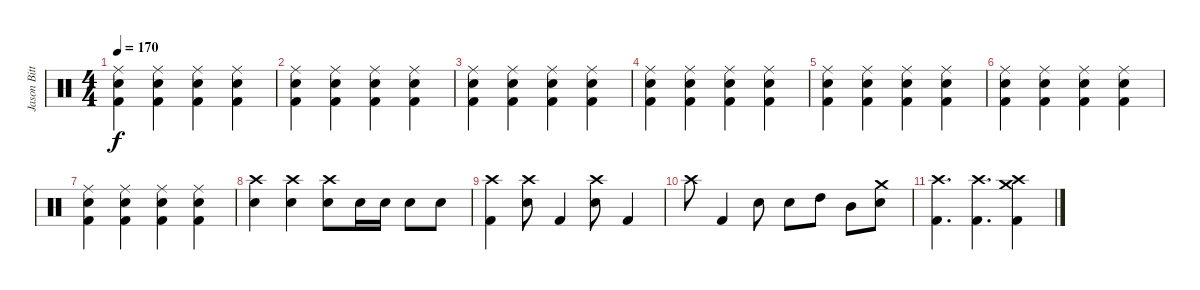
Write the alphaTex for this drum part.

\track ("Jason Bittner" "Jason Bitt") {instrument percussion}
\staff {score}
\articulation defaults
\ts (4 4)
\tempo 170
\clef neutral
\ks c
("Ride (middle)" "Electric Snare (hit)" "Kick (hit) 2").4{dy f} ("Ride (middle)" "Electric Snare (hit)" "Kick (hit) 2").4 ("Ride (middle)" "Electric Snare (hit)" "Kick (hit) 2").4 ("Ride (middle)" "Electric Snare (hit)" "Kick (hit) 2").4 |
("Ride (middle)" "Electric Snare (hit)" "Kick (hit) 2").4 ("Ride (middle)" "Electric Snare (hit)" "Kick (hit) 2").4 ("Ride (middle)" "Electric Snare (hit)" "Kick (hit) 2").4 ("Ride (middle)" "Electric Snare (hit)" "Kick (hit) 2").4 |
("Ride (middle)" "Electric Snare (hit)" "Kick (hit) 2").4 ("Ride (middle)" "Electric Snare (hit)" "Kick (hit) 2").4 ("Ride (middle)" "Electric Snare (hit)" "Kick (hit) 2").4 ("Ride (middle)" "Electric Snare (hit)" "Kick (hit) 2").4 |
("Ride (middle)" "Electric Snare (hit)" "Kick (hit) 2").4 ("Ride (middle)" "Electric Snare (hit)" "Kick (hit) 2").4 ("Ride (middle)" "Electric Snare (hit)" "Kick (hit) 2").4 ("Ride (middle)" "Electric Snare (hit)" "Kick (hit) 2").4 |
("Ride (middle)" "Electric Snare (hit)" "Kick (hit) 2").4 ("Ride (middle)" "Electric Snare (hit)" "Kick (hit) 2").4 ("Ride (middle)" "Electric Snare (hit)" "Kick (hit) 2").4 ("Ride (middle)" "Electric Snare (hit)" "Kick (hit) 2").4 |
("Ride (middle)" "Electric Snare (hit)" "Kick (hit) 2").4 ("Ride (middle)" "Electric Snare (hit)" "Kick (hit) 2").4 ("Ride (middle)" "Electric Snare (hit)" "Kick (hit) 2").4 ("Ride (middle)" "Electric Snare (hit)" "Kick (hit) 2").4 |
("Ride (middle)" "Electric Snare (hit)" "Kick (hit) 2").4 ("Ride (middle)" "Electric Snare (hit)" "Kick (hit) 2").4 ("Ride (middle)" "Electric Snare (hit)" "Kick (hit) 2").4 ("Ride (middle)" "Electric Snare (hit)" "Kick (hit) 2").4 |
("Crash high (hit)" "Electric Snare (hit)").4 ("Crash high (hit)" "Electric Snare (hit)").4 ("Crash high (hit)" "Electric Snare (hit)").8 "Electric Snare (hit)".16 "Electric Snare (hit)".16 "Electric Snare (hit)".8 "Electric Snare (hit)".8 |
("Crash high (hit)" "Kick (hit) 2").4 ("Crash high (hit)" "Electric Snare (hit)").8 "Kick (hit) 2".4 ("Crash high (hit)" "Electric Snare (hit)").8 "Kick (hit) 2".4 |
"Crash high (hit)".8 "Kick (hit) 2".4 "Electric Snare (hit)".8 "Electric Snare (hit)".8 "High Tom (hit)".8 "Mid Tom (hit)".8 ("Crash medium (hit)" "Electric Snare (hit)").8 |
("Crash high (hit)" "Kick (hit) 2").4{d} ("Crash high (hit)" "Kick (hit) 2").4{d} ("Crash medium (hit)" "Crash high (hit)" "Kick (hit) 2").4
